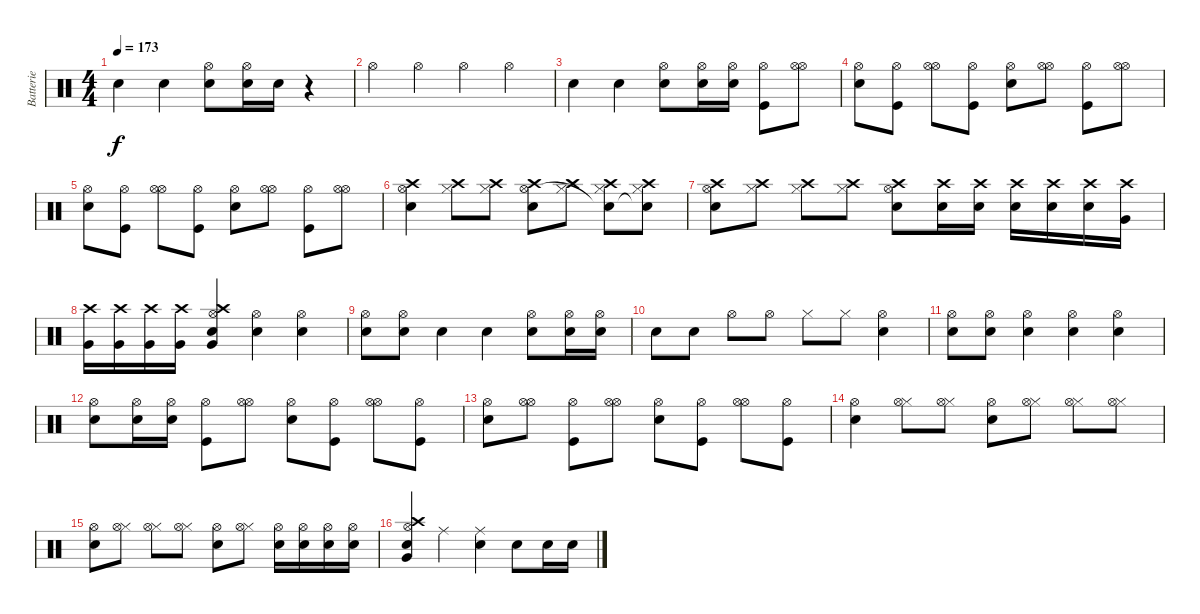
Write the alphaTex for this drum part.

\track ("Batterie" "Batterie") {instrument percussion}
\staff {score}
\articulation defaults
\ts (4 4)
\tempo 173
\clef neutral
\ks c "Electric Snare (hit)".4{dy f} "Electric Snare (hit)".4
("Electric Snare (hit)" "Hi-Hat (open)").8 ("Electric Snare (hit)" "Hi-Hat (open)").16 "Electric Snare (hit)".16 r.4 |
"Hi-Hat (open)".4 "Hi-Hat (open)".4 "Hi-Hat (open)".4 "Hi-Hat (open)".4 |
"Electric Snare (hit)".4 "Electric Snare (hit)".4 ("Electric Snare (hit)" "Hi-Hat (open)").8 ("Electric Snare (hit)" "Hi-Hat (open)").16 ("Electric Snare (hit)" "Hi-Hat (open)").16 ("Kick (hit)" "Hi-Hat (open)").8 ("Hi-Hat (open)" "Hi-Hat (open)").8 |
("Electric Snare (hit)" "Hi-Hat (open)").8 ("Kick (hit)" "Hi-Hat (open)").8 ("Hi-Hat (open)" "Hi-Hat (open)").8 ("Kick (hit)" "Hi-Hat (open)").8 ("Electric Snare (hit)" "Hi-Hat (open)").8 ("Hi-Hat (open)" "Hi-Hat (open)").8 ("Kick (hit)" "Hi-Hat (open)").8 ("Hi-Hat (open)" "Hi-Hat (open)").8 |
("Electric Snare (hit)" "Hi-Hat (open)").8 ("Kick (hit)" "Hi-Hat (open)").8 ("Hi-Hat (open)" "Hi-Hat (open)").8 ("Kick (hit)" "Hi-Hat (open)").8 ("Electric Snare (hit)" "Hi-Hat (open)").8 ("Hi-Hat (open)" "Hi-Hat (open)").8 ("Kick (hit)" "Hi-Hat (open)").8 ("Hi-Hat (open)" "Hi-Hat (open)").8 |
("Electric Snare (hit)" "Hi-Hat (open)" "Crash high (hit)").4 ("Hi-Hat (closed)" "Crash high (hit)").8 ("Hi-Hat (closed)" "Crash high (hit)").8 ("Electric Snare (hit)" "Crash high (hit)" "Hi-Hat (open)").8 ("Hi-Hat (closed)" "Crash high (hit)").8 ("Hi-Hat (closed)" "Crash high (hit)" "Snare (hit)"{t}).8 ("Hi-Hat (closed)" "Crash high (hit)" "Snare (hit)"{t}).8 |
("Electric Snare (hit)" "Crash high (hit)" "Hi-Hat (open)").8 ("Hi-Hat (closed)" "Crash high (hit)").8 ("Hi-Hat (closed)" "Crash high (hit)").8 ("Hi-Hat (closed)" "Crash high (hit)").8 ("Electric Snare (hit)" "Crash high (hit)" "Hi-Hat (open)").8 ("Electric Snare (hit)" "Crash high (hit)").16 ("Electric Snare (hit)" "Crash high (hit)").16 ("Electric Snare (hit)" "Crash high (hit)").16 ("Electric Snare (hit)" "Crash high (hit)").16 ("Electric Snare (hit)" "Crash high (hit)").16 ("Very Low Tom (hit)" "Crash high (hit)").16 |
("Very Low Tom (hit)" "Crash high (hit)").16 ("Very Low Tom (hit)" "Crash high (hit)").16 ("Very Low Tom (hit)" "Crash high (hit)").16 ("Very Low Tom (hit)" "Crash high (hit)").16 ("Crash high (hit)" "Hi-Hat (open)" "Electric Snare (hit)" "Very Low Tom (hit)").4 ("Electric Snare (hit)" "Hi-Hat (open)").4 ("Electric Snare (hit)" "Hi-Hat (open)").4 |
("Electric Snare (hit)" "Hi-Hat (open)").8 ("Electric Snare (hit)" "Hi-Hat (open)").8 "Electric Snare (hit)".4 "Electric Snare (hit)".4 ("Electric Snare (hit)" "Hi-Hat (open)").8 ("Electric Snare (hit)" "Hi-Hat (open)").16 ("Electric Snare (hit)" "Hi-Hat (open)").16 |
"Electric Snare (hit)".8 "Electric Snare (hit)".8 "Hi-Hat (open)".8 "Hi-Hat (open)".8 "Hi-Hat (closed)".8 "Hi-Hat (closed)".8 ("Electric Snare (hit)" "Hi-Hat (open)").4 |
("Electric Snare (hit)" "Hi-Hat (open)").8 ("Electric Snare (hit)" "Hi-Hat (open)").8 ("Electric Snare (hit)" "Hi-Hat (open)").4 ("Electric Snare (hit)" "Hi-Hat (open)").4 ("Electric Snare (hit)" "Hi-Hat (open)").4 |
("Electric Snare (hit)" "Hi-Hat (open)").8 ("Electric Snare (hit)" "Hi-Hat (open)").16 ("Electric Snare (hit)" "Hi-Hat (open)").16 ("Kick (hit)" "Hi-Hat (open)").8 ("Hi-Hat (open)" "Hi-Hat (open)").8 ("Electric Snare (hit)" "Hi-Hat (open)").8 ("Kick (hit)" "Hi-Hat (open)").8 ("Hi-Hat (open)" "Hi-Hat (open)").8 ("Kick (hit)" "Hi-Hat (open)").8 |
("Electric Snare (hit)" "Hi-Hat (open)").8 ("Hi-Hat (open)" "Hi-Hat (open)").8 ("Kick (hit)" "Hi-Hat (open)").8 ("Hi-Hat (open)" "Hi-Hat (open)").8 ("Electric Snare (hit)" "Hi-Hat (open)").8 ("Kick (hit)" "Hi-Hat (open)").8 ("Hi-Hat (open)" "Hi-Hat (open)").8 ("Kick (hit)" "Hi-Hat (open)").8 |
("Electric Snare (hit)" "Hi-Hat (open)").4 ("Hi-Hat (closed)" "Hi-Hat (open)").8 ("Hi-Hat (closed)" "Hi-Hat (open)").8 ("Electric Snare (hit)" "Hi-Hat (open)").8 ("Hi-Hat (closed)" "Hi-Hat (open)").8 ("Hi-Hat (closed)" "Hi-Hat (open)").8 ("Hi-Hat (closed)" "Hi-Hat (open)").8 |
("Electric Snare (hit)" "Hi-Hat (open)").8 ("Hi-Hat (closed)" "Hi-Hat (open)").8 ("Hi-Hat (closed)" "Hi-Hat (open)").8 ("Hi-Hat (closed)" "Hi-Hat (open)").8 ("Electric Snare (hit)" "Hi-Hat (open)").8 ("Hi-Hat (closed)" "Hi-Hat (open)").8 ("Electric Snare (hit)" "Hi-Hat (open)").16 ("Electric Snare (hit)" "Hi-Hat (open)").16 ("Electric Snare (hit)" "Hi-Hat (open)").16 ("Electric Snare (hit)" "Hi-Hat (open)").16 |
("Electric Snare (hit)" "Very Low Tom (hit)" "Crash high (hit)" "Hi-Hat (open)").4 "Ride (middle)".4 ("Ride (middle)" "Electric Snare (hit)").4 "Electric Snare (hit)".8 "Electric Snare (hit)".16 "Electric Snare (hit)".16
